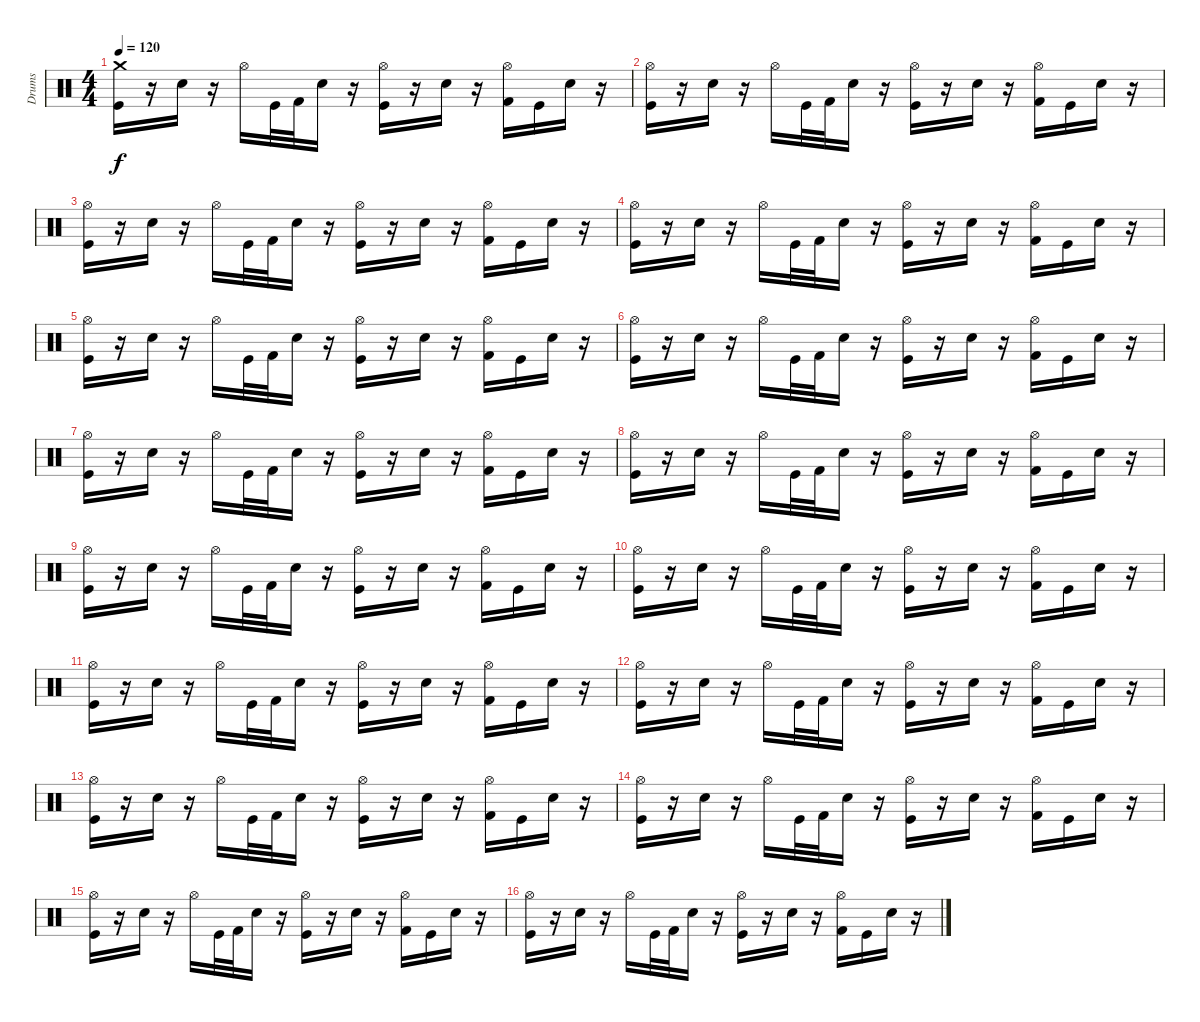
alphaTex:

\track ("Drums" "Drums") {instrument percussion}
\staff {score}
\articulation defaults
\ts (4 4)
\tempo 120
\clef neutral
\ks c
("Crash medium (hit)" "Kick (hit)").16{dy f} r.16 "Electric Snare (hit)".16 r.16 "Hi-Hat (open)".16 "Kick (hit)".32 "Kick (hit) 2".32 "Electric Snare (hit)".16 r.16 ("Hi-Hat (open)" "Kick (hit)").16 r.16 "Electric Snare (hit)".16 r.16 ("Hi-Hat (open)" "Kick (hit) 2").16 "Kick (hit)".16 "Electric Snare (hit)".16 r.16 |
("Hi-Hat (open)" "Kick (hit)").16 r.16 "Electric Snare (hit)".16 r.16 "Hi-Hat (open)".16 "Kick (hit)".32 "Kick (hit) 2".32 "Electric Snare (hit)".16 r.16 ("Hi-Hat (open)" "Kick (hit)").16 r.16 "Electric Snare (hit)".16 r.16 ("Hi-Hat (open)" "Kick (hit) 2").16 "Kick (hit)".16 "Electric Snare (hit)".16 r.16 |
("Hi-Hat (open)" "Kick (hit)").16 r.16 "Electric Snare (hit)".16 r.16 "Hi-Hat (open)".16 "Kick (hit)".32 "Kick (hit) 2".32 "Electric Snare (hit)".16 r.16 ("Hi-Hat (open)" "Kick (hit)").16 r.16 "Electric Snare (hit)".16 r.16 ("Hi-Hat (open)" "Kick (hit) 2").16 "Kick (hit)".16 "Electric Snare (hit)".16 r.16 |
("Hi-Hat (open)" "Kick (hit)").16 r.16 "Electric Snare (hit)".16 r.16 "Hi-Hat (open)".16 "Kick (hit)".32 "Kick (hit) 2".32 "Electric Snare (hit)".16 r.16 ("Hi-Hat (open)" "Kick (hit)").16 r.16 "Electric Snare (hit)".16 r.16 ("Hi-Hat (open)" "Kick (hit) 2").16 "Kick (hit)".16 "Electric Snare (hit)".16 r.16 |
("Hi-Hat (open)" "Kick (hit)").16 r.16 "Electric Snare (hit)".16 r.16 "Hi-Hat (open)".16 "Kick (hit)".32 "Kick (hit) 2".32 "Electric Snare (hit)".16 r.16 ("Hi-Hat (open)" "Kick (hit)").16 r.16 "Electric Snare (hit)".16 r.16 ("Hi-Hat (open)" "Kick (hit) 2").16 "Kick (hit)".16 "Electric Snare (hit)".16 r.16 |
("Hi-Hat (open)" "Kick (hit)").16 r.16 "Electric Snare (hit)".16 r.16 "Hi-Hat (open)".16 "Kick (hit)".32 "Kick (hit) 2".32 "Electric Snare (hit)".16 r.16 ("Hi-Hat (open)" "Kick (hit)").16 r.16 "Electric Snare (hit)".16 r.16 ("Hi-Hat (open)" "Kick (hit) 2").16 "Kick (hit)".16 "Electric Snare (hit)".16 r.16 |
("Hi-Hat (open)" "Kick (hit)").16 r.16 "Electric Snare (hit)".16 r.16 "Hi-Hat (open)".16 "Kick (hit)".32 "Kick (hit) 2".32 "Electric Snare (hit)".16 r.16 ("Hi-Hat (open)" "Kick (hit)").16 r.16 "Electric Snare (hit)".16 r.16 ("Hi-Hat (open)" "Kick (hit) 2").16 "Kick (hit)".16 "Electric Snare (hit)".16 r.16 |
("Hi-Hat (open)" "Kick (hit)").16 r.16 "Electric Snare (hit)".16 r.16 "Hi-Hat (open)".16 "Kick (hit)".32 "Kick (hit) 2".32 "Electric Snare (hit)".16 r.16 ("Hi-Hat (open)" "Kick (hit)").16 r.16 "Electric Snare (hit)".16 r.16 ("Hi-Hat (open)" "Kick (hit) 2").16 "Kick (hit)".16 "Electric Snare (hit)".16 r.16 |
("Hi-Hat (open)" "Kick (hit)").16 r.16 "Electric Snare (hit)".16 r.16 "Hi-Hat (open)".16 "Kick (hit)".32 "Kick (hit) 2".32 "Electric Snare (hit)".16 r.16 ("Hi-Hat (open)" "Kick (hit)").16 r.16 "Electric Snare (hit)".16 r.16 ("Hi-Hat (open)" "Kick (hit) 2").16 "Kick (hit)".16 "Electric Snare (hit)".16 r.16 |
("Hi-Hat (open)" "Kick (hit)").16 r.16 "Electric Snare (hit)".16 r.16 "Hi-Hat (open)".16 "Kick (hit)".32 "Kick (hit) 2".32 "Electric Snare (hit)".16 r.16 ("Hi-Hat (open)" "Kick (hit)").16 r.16 "Electric Snare (hit)".16 r.16 ("Hi-Hat (open)" "Kick (hit) 2").16 "Kick (hit)".16 "Electric Snare (hit)".16 r.16 |
("Hi-Hat (open)" "Kick (hit)").16 r.16 "Electric Snare (hit)".16 r.16 "Hi-Hat (open)".16 "Kick (hit)".32 "Kick (hit) 2".32 "Electric Snare (hit)".16 r.16 ("Hi-Hat (open)" "Kick (hit)").16 r.16 "Electric Snare (hit)".16 r.16 ("Hi-Hat (open)" "Kick (hit) 2").16 "Kick (hit)".16 "Electric Snare (hit)".16 r.16 |
("Hi-Hat (open)" "Kick (hit)").16 r.16 "Electric Snare (hit)".16 r.16 "Hi-Hat (open)".16 "Kick (hit)".32 "Kick (hit) 2".32 "Electric Snare (hit)".16 r.16 ("Hi-Hat (open)" "Kick (hit)").16 r.16 "Electric Snare (hit)".16 r.16 ("Hi-Hat (open)" "Kick (hit) 2").16 "Kick (hit)".16 "Electric Snare (hit)".16 r.16 |
("Hi-Hat (open)" "Kick (hit)").16 r.16 "Electric Snare (hit)".16 r.16 "Hi-Hat (open)".16 "Kick (hit)".32 "Kick (hit) 2".32 "Electric Snare (hit)".16 r.16 ("Hi-Hat (open)" "Kick (hit)").16 r.16 "Electric Snare (hit)".16 r.16 ("Hi-Hat (open)" "Kick (hit) 2").16 "Kick (hit)".16 "Electric Snare (hit)".16 r.16 |
("Hi-Hat (open)" "Kick (hit)").16 r.16 "Electric Snare (hit)".16 r.16 "Hi-Hat (open)".16 "Kick (hit)".32 "Kick (hit) 2".32 "Electric Snare (hit)".16 r.16 ("Hi-Hat (open)" "Kick (hit)").16 r.16 "Electric Snare (hit)".16 r.16 ("Hi-Hat (open)" "Kick (hit) 2").16 "Kick (hit)".16 "Electric Snare (hit)".16 r.16 |
("Hi-Hat (open)" "Kick (hit)").16 r.16 "Electric Snare (hit)".16 r.16 "Hi-Hat (open)".16 "Kick (hit)".32 "Kick (hit) 2".32 "Electric Snare (hit)".16 r.16 ("Hi-Hat (open)" "Kick (hit)").16 r.16 "Electric Snare (hit)".16 r.16 ("Hi-Hat (open)" "Kick (hit) 2").16 "Kick (hit)".16 "Electric Snare (hit)".16 r.16 |
("Hi-Hat (open)" "Kick (hit)").16 r.16 "Electric Snare (hit)".16 r.16 "Hi-Hat (open)".16 "Kick (hit)".32 "Kick (hit) 2".32 "Electric Snare (hit)".16 r.16 ("Hi-Hat (open)" "Kick (hit)").16 r.16 "Electric Snare (hit)".16 r.16 ("Hi-Hat (open)" "Kick (hit) 2").16 "Kick (hit)".16 "Electric Snare (hit)".16 r.16
